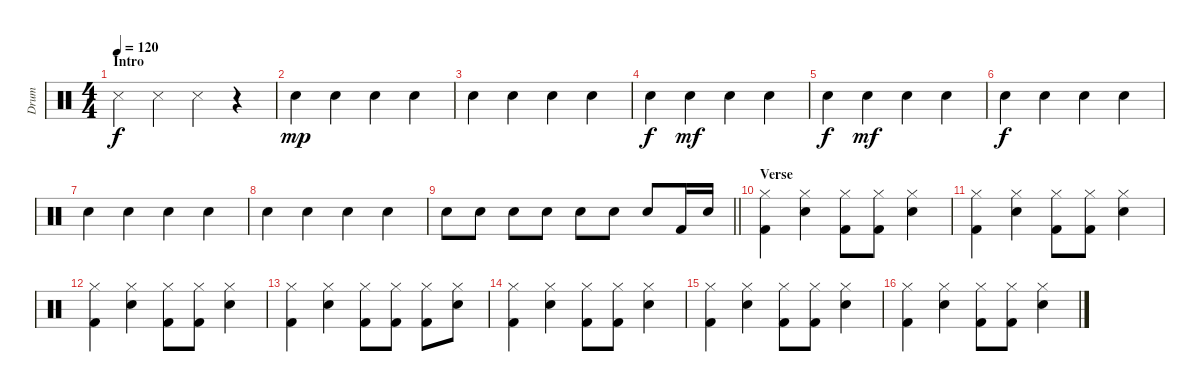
\track ("Drum" "Drum") {instrument percussion}
\staff {score}
\articulation defaults
\ts (4 4)
\section ("" "Intro")
\tempo 120
\clef neutral
\ks c "Snare (side stick) 3".4{dy f} "Snare (side stick) 3".4 "Snare (side stick) 3".4
r.4 |
"Snare (hit) 2".4{dy mp} "Snare (hit) 2".4 "Snare (hit) 2".4 "Snare (hit) 2".4 |
"Snare (hit) 2".4 "Snare (hit) 2".4 "Snare (hit) 2".4 "Snare (hit) 2".4 |
"Snare (hit) 2".4{dy f} "Snare (hit) 2".4{dy mf} "Snare (hit) 2".4 "Snare (hit) 2".4 |
"Snare (hit) 2".4{dy f} "Snare (hit) 2".4{dy mf} "Snare (hit) 2".4 "Snare (hit) 2".4 |
"Snare (hit) 2".4{dy f} "Snare (hit) 2".4 "Snare (hit) 2".4 "Snare (hit) 2".4 |
"Snare (hit) 2".4 "Snare (hit) 2".4 "Snare (hit) 2".4 "Snare (hit) 2".4 |
"Snare (hit) 2".4 "Snare (hit) 2".4 "Snare (hit) 2".4 "Snare (hit) 2".4 |
\barLineRight lightlight "Snare (hit) 2".8 "Snare (hit) 2".8 "Snare (hit) 2".8 "Snare (hit) 2".8 "Snare (hit) 2".8 "Snare (hit) 2".8 "Snare (hit) 2".8 "Kick (hit) 2".16 "Snare (hit) 2".16
|
\section ("" "Verse")
("Hi-Hat (closed)" "Kick (hit) 2").4 ("Snare (hit) 2" "Hi-Hat (closed)").4 ("Hi-Hat (closed)" "Kick (hit) 2").8 ("Hi-Hat (closed)" "Kick (hit) 2").8 ("Snare (hit) 2" "Hi-Hat (closed)").4 |
("Hi-Hat (closed)" "Kick (hit) 2").4 ("Snare (hit) 2" "Hi-Hat (closed)").4 ("Hi-Hat (closed)" "Kick (hit) 2").8 ("Hi-Hat (closed)" "Kick (hit) 2").8 ("Snare (hit) 2" "Hi-Hat (closed)").4 |
("Hi-Hat (closed)" "Kick (hit) 2").4 ("Snare (hit) 2" "Hi-Hat (closed)").4 ("Hi-Hat (closed)" "Kick (hit) 2").8 ("Hi-Hat (closed)" "Kick (hit) 2").8 ("Snare (hit) 2" "Hi-Hat (closed)").4 |
("Hi-Hat (closed)" "Kick (hit) 2").4 ("Snare (hit) 2" "Hi-Hat (closed)").4 ("Hi-Hat (closed)" "Kick (hit) 2").8 ("Hi-Hat (closed)" "Kick (hit) 2").8 ("Hi-Hat (closed)" "Kick (hit) 2").8 ("Snare (hit) 2" "Hi-Hat (closed)").8 |
("Hi-Hat (closed)" "Kick (hit) 2").4 ("Snare (hit) 2" "Hi-Hat (closed)").4 ("Hi-Hat (closed)" "Kick (hit) 2").8 ("Hi-Hat (closed)" "Kick (hit) 2").8 ("Snare (hit) 2" "Hi-Hat (closed)").4 |
("Hi-Hat (closed)" "Kick (hit) 2").4 ("Snare (hit) 2" "Hi-Hat (closed)").4 ("Hi-Hat (closed)" "Kick (hit) 2").8 ("Hi-Hat (closed)" "Kick (hit) 2").8 ("Snare (hit) 2" "Hi-Hat (closed)").4 |
("Hi-Hat (closed)" "Kick (hit) 2").4 ("Snare (hit) 2" "Hi-Hat (closed)").4 ("Hi-Hat (closed)" "Kick (hit) 2").8 ("Hi-Hat (closed)" "Kick (hit) 2").8 ("Snare (hit) 2" "Hi-Hat (closed)").4
